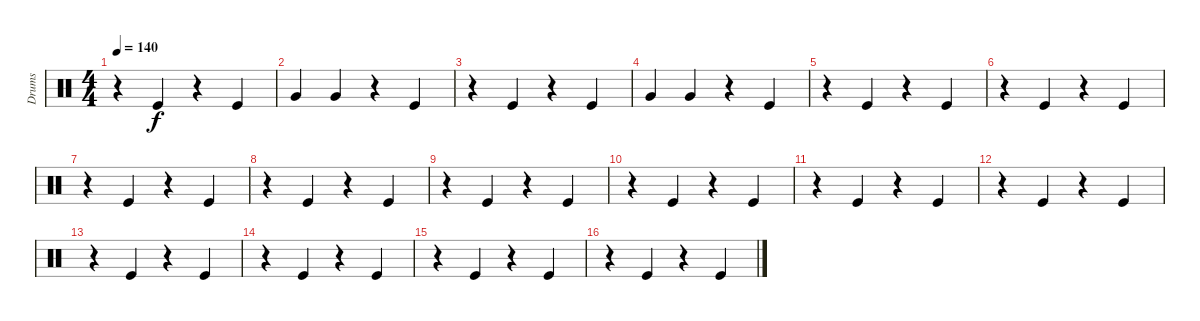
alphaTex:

\track ("Drums" "Drums") {instrument percussion}
\staff {score}
\articulation defaults
\ts (4 4)
\tempo 140
\clef neutral
\ks c
r.4{dy f} "Kick (hit)".4 r.4 "Kick (hit)".4 |
"Very Low Tom (hit)".4 "Very Low Tom (hit)".4 r.4 "Kick (hit)".4 |
r.4 "Kick (hit)".4 r.4 "Kick (hit)".4 |
"Very Low Tom (hit)".4 "Very Low Tom (hit)".4 r.4 "Kick (hit)".4 |
r.4 "Kick (hit)".4 r.4 "Kick (hit)".4 |
r.4 "Kick (hit)".4 r.4 "Kick (hit)".4 |
r.4 "Kick (hit)".4 r.4 "Kick (hit)".4 |
r.4 "Kick (hit)".4 r.4 "Kick (hit)".4 |
r.4 "Kick (hit)".4 r.4 "Kick (hit)".4 |
r.4 "Kick (hit)".4 r.4 "Kick (hit)".4 |
r.4 "Kick (hit)".4 r.4 "Kick (hit)".4 |
r.4 "Kick (hit)".4 r.4 "Kick (hit)".4 |
r.4 "Kick (hit)".4 r.4 "Kick (hit)".4 |
r.4 "Kick (hit)".4 r.4 "Kick (hit)".4 |
r.4 "Kick (hit)".4 r.4 "Kick (hit)".4 |
r.4 "Kick (hit)".4 r.4 "Kick (hit)".4
